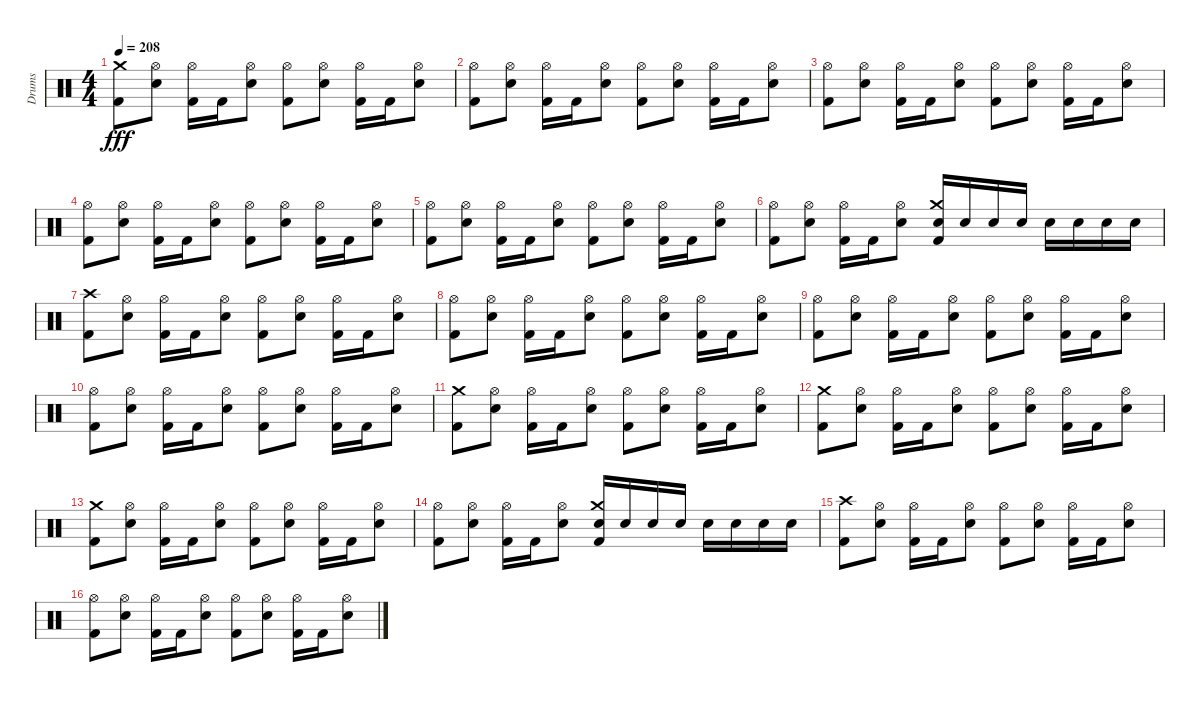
\track ("Drums" "Drums") {instrument percussion}
\staff {score}
\articulation defaults
\ts (4 4)
\tempo 208
\clef neutral
\ks c
("Kick (hit) 2" "Crash medium (hit)").8{dy fff} ("Electric Snare (hit)" "Hi-Hat (open)").8 ("Hi-Hat (open)" "Kick (hit) 2").16 "Kick (hit) 2".16 ("Electric Snare (hit)" "Hi-Hat (open)").8 ("Hi-Hat (open)" "Kick (hit) 2").8 ("Electric Snare (hit)" "Hi-Hat (open)").8 ("Hi-Hat (open)" "Kick (hit) 2").16 "Kick (hit) 2".16 ("Electric Snare (hit)" "Hi-Hat (open)").8 |
("Hi-Hat (open)" "Kick (hit) 2").8 ("Electric Snare (hit)" "Hi-Hat (open)").8 ("Hi-Hat (open)" "Kick (hit) 2").16 "Kick (hit) 2".16 ("Electric Snare (hit)" "Hi-Hat (open)").8 ("Hi-Hat (open)" "Kick (hit) 2").8 ("Electric Snare (hit)" "Hi-Hat (open)").8 ("Hi-Hat (open)" "Kick (hit) 2").16 "Kick (hit) 2".16 ("Electric Snare (hit)" "Hi-Hat (open)").8 |
("Hi-Hat (open)" "Kick (hit) 2").8 ("Electric Snare (hit)" "Hi-Hat (open)").8 ("Hi-Hat (open)" "Kick (hit) 2").16 "Kick (hit) 2".16 ("Electric Snare (hit)" "Hi-Hat (open)").8 ("Hi-Hat (open)" "Kick (hit) 2").8 ("Electric Snare (hit)" "Hi-Hat (open)").8 ("Hi-Hat (open)" "Kick (hit) 2").16 "Kick (hit) 2".16 ("Electric Snare (hit)" "Hi-Hat (open)").8 |
("Hi-Hat (open)" "Kick (hit) 2").8 ("Electric Snare (hit)" "Hi-Hat (open)").8 ("Hi-Hat (open)" "Kick (hit) 2").16 "Kick (hit) 2".16 ("Electric Snare (hit)" "Hi-Hat (open)").8 ("Hi-Hat (open)" "Kick (hit) 2").8 ("Electric Snare (hit)" "Hi-Hat (open)").8 ("Hi-Hat (open)" "Kick (hit) 2").16 "Kick (hit) 2".16 ("Electric Snare (hit)" "Hi-Hat (open)").8 |
("Hi-Hat (open)" "Kick (hit) 2").8 ("Electric Snare (hit)" "Hi-Hat (open)").8 ("Hi-Hat (open)" "Kick (hit) 2").16 "Kick (hit) 2".16 ("Electric Snare (hit)" "Hi-Hat (open)").8 ("Hi-Hat (open)" "Kick (hit) 2").8 ("Electric Snare (hit)" "Hi-Hat (open)").8 ("Hi-Hat (open)" "Kick (hit) 2").16 "Kick (hit) 2".16 ("Electric Snare (hit)" "Hi-Hat (open)").8 |
("Hi-Hat (open)" "Kick (hit) 2").8 ("Electric Snare (hit)" "Hi-Hat (open)").8 ("Hi-Hat (open)" "Kick (hit) 2").16 "Kick (hit) 2".16 ("Electric Snare (hit)" "Hi-Hat (open)").8 ("Kick (hit) 2" "Electric Snare (hit)" "Crash medium (hit)").16 "Electric Snare (hit)".16 "Electric Snare (hit)".16 "Electric Snare (hit)".16 "Electric Snare (hit)".16 "Electric Snare (hit)".16 "Electric Snare (hit)".16 "Electric Snare (hit)".16 |
("Kick (hit) 2" "Crash high (hit)").8 ("Electric Snare (hit)" "Hi-Hat (open)").8 ("Hi-Hat (open)" "Kick (hit) 2").16 "Kick (hit) 2".16 ("Electric Snare (hit)" "Hi-Hat (open)").8 ("Hi-Hat (open)" "Kick (hit) 2").8 ("Electric Snare (hit)" "Hi-Hat (open)").8 ("Hi-Hat (open)" "Kick (hit) 2").16 "Kick (hit) 2".16 ("Electric Snare (hit)" "Hi-Hat (open)").8 |
("Hi-Hat (open)" "Kick (hit) 2").8 ("Electric Snare (hit)" "Hi-Hat (open)").8 ("Hi-Hat (open)" "Kick (hit) 2").16 "Kick (hit) 2".16 ("Electric Snare (hit)" "Hi-Hat (open)").8 ("Hi-Hat (open)" "Kick (hit) 2").8 ("Electric Snare (hit)" "Hi-Hat (open)").8 ("Hi-Hat (open)" "Kick (hit) 2").16 "Kick (hit) 2".16 ("Electric Snare (hit)" "Hi-Hat (open)").8 |
("Hi-Hat (open)" "Kick (hit) 2").8 ("Electric Snare (hit)" "Hi-Hat (open)").8 ("Hi-Hat (open)" "Kick (hit) 2").16 "Kick (hit) 2".16 ("Electric Snare (hit)" "Hi-Hat (open)").8 ("Hi-Hat (open)" "Kick (hit) 2").8 ("Electric Snare (hit)" "Hi-Hat (open)").8 ("Hi-Hat (open)" "Kick (hit) 2").16 "Kick (hit) 2".16 ("Electric Snare (hit)" "Hi-Hat (open)").8 |
("Hi-Hat (open)" "Kick (hit) 2").8 ("Electric Snare (hit)" "Hi-Hat (open)").8 ("Hi-Hat (open)" "Kick (hit) 2").16 "Kick (hit) 2".16 ("Electric Snare (hit)" "Hi-Hat (open)").8 ("Hi-Hat (open)" "Kick (hit) 2").8 ("Electric Snare (hit)" "Hi-Hat (open)").8 ("Hi-Hat (open)" "Kick (hit) 2").16 "Kick (hit) 2".16 ("Electric Snare (hit)" "Hi-Hat (open)").8 |
("Kick (hit) 2" "Crash medium (hit)").8 ("Electric Snare (hit)" "Hi-Hat (open)").8 ("Hi-Hat (open)" "Kick (hit) 2").16 "Kick (hit) 2".16 ("Electric Snare (hit)" "Hi-Hat (open)").8 ("Hi-Hat (open)" "Kick (hit) 2").8 ("Electric Snare (hit)" "Hi-Hat (open)").8 ("Hi-Hat (open)" "Kick (hit) 2").16 "Kick (hit) 2".16 ("Electric Snare (hit)" "Hi-Hat (open)").8 |
("Kick (hit) 2" "Crash medium (hit)").8 ("Electric Snare (hit)" "Hi-Hat (open)").8 ("Hi-Hat (open)" "Kick (hit) 2").16 "Kick (hit) 2".16 ("Electric Snare (hit)" "Hi-Hat (open)").8 ("Hi-Hat (open)" "Kick (hit) 2").8 ("Electric Snare (hit)" "Hi-Hat (open)").8 ("Hi-Hat (open)" "Kick (hit) 2").16 "Kick (hit) 2".16 ("Electric Snare (hit)" "Hi-Hat (open)").8 |
("Kick (hit) 2" "Crash medium (hit)").8 ("Electric Snare (hit)" "Hi-Hat (open)").8 ("Hi-Hat (open)" "Kick (hit) 2").16 "Kick (hit) 2".16 ("Electric Snare (hit)" "Hi-Hat (open)").8 ("Hi-Hat (open)" "Kick (hit) 2").8 ("Electric Snare (hit)" "Hi-Hat (open)").8 ("Hi-Hat (open)" "Kick (hit) 2").16 "Kick (hit) 2".16 ("Electric Snare (hit)" "Hi-Hat (open)").8 |
("Hi-Hat (open)" "Kick (hit) 2").8 ("Electric Snare (hit)" "Hi-Hat (open)").8 ("Hi-Hat (open)" "Kick (hit) 2").16 "Kick (hit) 2".16 ("Electric Snare (hit)" "Hi-Hat (open)").8 ("Kick (hit) 2" "Electric Snare (hit)" "Crash medium (hit)").16 "Electric Snare (hit)".16 "Electric Snare (hit)".16 "Electric Snare (hit)".16 "Electric Snare (hit)".16 "Electric Snare (hit)".16 "Electric Snare (hit)".16 "Electric Snare (hit)".16 |
("Kick (hit) 2" "Crash high (hit)").8 ("Electric Snare (hit)" "Hi-Hat (open)").8 ("Hi-Hat (open)" "Kick (hit) 2").16 "Kick (hit) 2".16 ("Electric Snare (hit)" "Hi-Hat (open)").8 ("Hi-Hat (open)" "Kick (hit) 2").8 ("Electric Snare (hit)" "Hi-Hat (open)").8 ("Hi-Hat (open)" "Kick (hit) 2").16 "Kick (hit) 2".16 ("Electric Snare (hit)" "Hi-Hat (open)").8 |
("Hi-Hat (open)" "Kick (hit) 2").8 ("Electric Snare (hit)" "Hi-Hat (open)").8 ("Hi-Hat (open)" "Kick (hit) 2").16 "Kick (hit) 2".16 ("Electric Snare (hit)" "Hi-Hat (open)").8 ("Hi-Hat (open)" "Kick (hit) 2").8 ("Electric Snare (hit)" "Hi-Hat (open)").8 ("Hi-Hat (open)" "Kick (hit) 2").16 "Kick (hit) 2".16 ("Electric Snare (hit)" "Hi-Hat (open)").8
